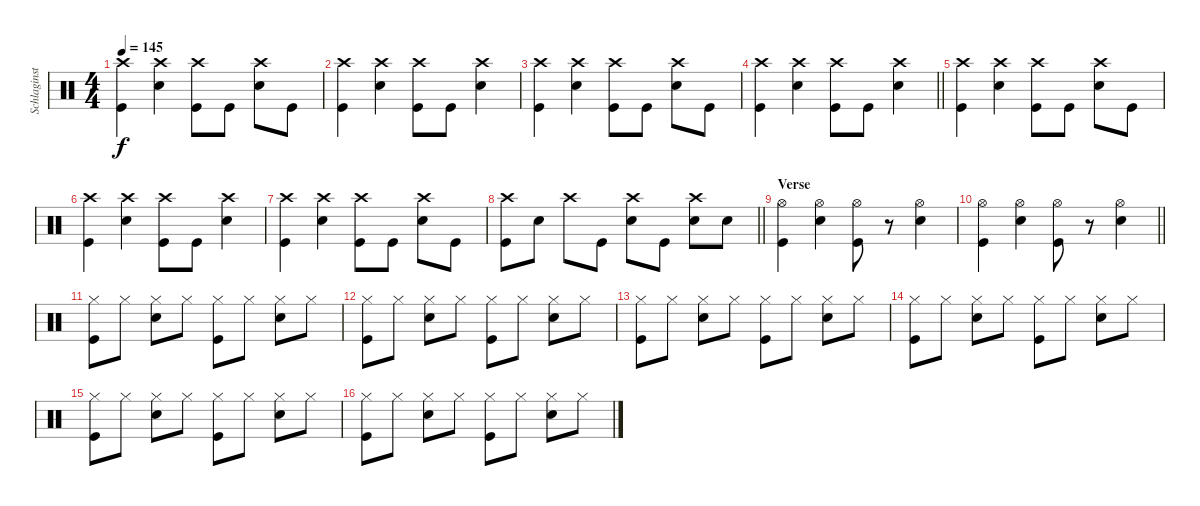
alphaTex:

\track ("Schlaginstrumente - Auswahl" "Schlaginst") {instrument percussion}
\staff {score}
\articulation defaults
\ts (4 4)
\tempo 145
\clef neutral
\ks c
("Kick (hit)" "Crash high (hit)").4{dy f} ("Snare (hit) 2" "Crash high (hit)").4 ("Kick (hit)" "Crash high (hit)").8 "Kick (hit)".8 ("Snare (hit) 2" "Crash high (hit)").8 "Kick (hit)".8 |
("Kick (hit)" "Crash high (hit)").4 ("Snare (hit) 2" "Crash high (hit)").4 ("Kick (hit)" "Crash high (hit)").8 "Kick (hit)".8 ("Snare (hit) 2" "Crash high (hit)").4 |
("Kick (hit)" "Crash high (hit)").4 ("Snare (hit) 2" "Crash high (hit)").4 ("Kick (hit)" "Crash high (hit)").8 "Kick (hit)".8 ("Snare (hit) 2" "Crash high (hit)").8 "Kick (hit)".8 |
\barLineRight lightlight
("Kick (hit)" "Crash high (hit)").4 ("Snare (hit) 2" "Crash high (hit)").4 ("Kick (hit)" "Crash high (hit)").8 "Kick (hit)".8 ("Snare (hit) 2" "Crash high (hit)").4 |
("Kick (hit)" "Crash high (hit)").4 ("Snare (hit) 2" "Crash high (hit)").4 ("Kick (hit)" "Crash high (hit)").8 "Kick (hit)".8 ("Snare (hit) 2" "Crash high (hit)").8 "Kick (hit)".8 |
("Kick (hit)" "Crash high (hit)").4 ("Snare (hit) 2" "Crash high (hit)").4 ("Kick (hit)" "Crash high (hit)").8 "Kick (hit)".8 ("Snare (hit) 2" "Crash high (hit)").4 |
("Kick (hit)" "Crash high (hit)").4 ("Snare (hit) 2" "Crash high (hit)").4 ("Kick (hit)" "Crash high (hit)").8 "Kick (hit)".8 ("Snare (hit) 2" "Crash high (hit)").8 "Kick (hit)".8 |
\barLineRight lightlight
("Kick (hit)" "Crash high (hit)").8 "Snare (hit) 2".8 "Crash high (hit)".8 "Kick (hit)".8 ("Snare (hit) 2" "Crash high (hit)").8 "Kick (hit)".8 ("Snare (hit) 2" "Crash high (hit)").8 "Snare (hit) 2".8 |
\section ("" "Verse")
("Kick (hit)" "Hi-Hat (open)").4 ("Snare (hit) 2" "Hi-Hat (open)").4 ("Kick (hit)" "Hi-Hat (open)").8 r.8 ("Snare (hit) 2" "Hi-Hat (open)").4 |
\barLineRight lightlight
("Kick (hit)" "Hi-Hat (open)").4 ("Snare (hit) 2" "Hi-Hat (open)").4 ("Kick (hit)" "Hi-Hat (open)").8 r.8 ("Snare (hit) 2" "Hi-Hat (open)").4 |
("Hi-Hat (closed)" "Kick (hit)").8 "Hi-Hat (closed)".8 ("Hi-Hat (closed)" "Snare (hit) 2").8 "Hi-Hat (closed)".8 ("Hi-Hat (closed)" "Kick (hit)").8 "Hi-Hat (closed)".8 ("Hi-Hat (closed)" "Snare (hit) 2").8 "Hi-Hat (closed)".8 |
("Hi-Hat (closed)" "Kick (hit)").8 "Hi-Hat (closed)".8 ("Hi-Hat (closed)" "Snare (hit) 2").8 "Hi-Hat (closed)".8 ("Hi-Hat (closed)" "Kick (hit)").8 "Hi-Hat (closed)".8 ("Hi-Hat (closed)" "Snare (hit) 2").8 "Hi-Hat (closed)".8 |
("Hi-Hat (closed)" "Kick (hit)").8 "Hi-Hat (closed)".8 ("Hi-Hat (closed)" "Snare (hit) 2").8 "Hi-Hat (closed)".8 ("Hi-Hat (closed)" "Kick (hit)").8 "Hi-Hat (closed)".8 ("Hi-Hat (closed)" "Snare (hit) 2").8 "Hi-Hat (closed)".8 |
("Hi-Hat (closed)" "Kick (hit)").8 "Hi-Hat (closed)".8 ("Hi-Hat (closed)" "Snare (hit) 2").8 "Hi-Hat (closed)".8 ("Hi-Hat (closed)" "Kick (hit)").8 "Hi-Hat (closed)".8 ("Hi-Hat (closed)" "Snare (hit) 2").8 "Hi-Hat (closed)".8 |
("Hi-Hat (closed)" "Kick (hit)").8 "Hi-Hat (closed)".8 ("Hi-Hat (closed)" "Snare (hit) 2").8 "Hi-Hat (closed)".8 ("Hi-Hat (closed)" "Kick (hit)").8 "Hi-Hat (closed)".8 ("Hi-Hat (closed)" "Snare (hit) 2").8 "Hi-Hat (closed)".8 |
("Hi-Hat (closed)" "Kick (hit)").8 "Hi-Hat (closed)".8 ("Hi-Hat (closed)" "Snare (hit) 2").8 "Hi-Hat (closed)".8 ("Hi-Hat (closed)" "Kick (hit)").8 "Hi-Hat (closed)".8 ("Hi-Hat (closed)" "Snare (hit) 2").8 "Hi-Hat (closed)".8
